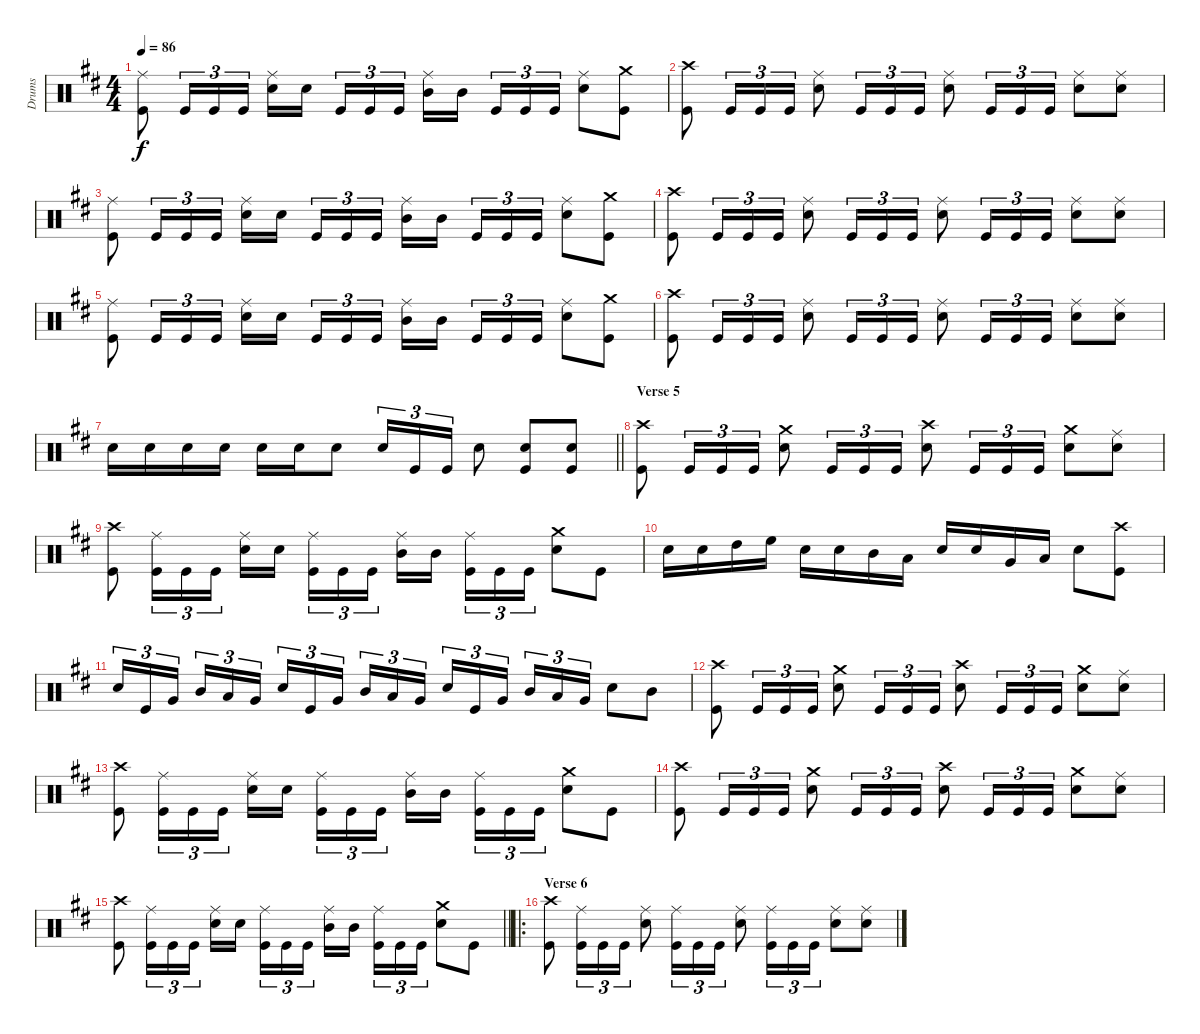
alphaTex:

\track ("Drums" "Drums") {instrument percussion}
\staff {score}
\articulation defaults
\ts (4 4)
\tempo 86
\clef neutral
\ks bminor
("Ride (middle)" "Kick (hit)").8{dy f} "Kick (hit)".16{tu (3 2)} "Kick (hit)".16{tu (3 2)} "Kick (hit)".16{tu (3 2)} ("Ride (middle)" "Snare (hit) 2").16 "Snare (hit) 2".16{beam splitsecondary} "Kick (hit)".16{tu (3 2)} "Kick (hit)".16{tu (3 2)} "Kick (hit)".16{tu (3 2)} ("Ride (middle)" "Mid Tom (hit)").16 "Mid Tom (hit)".16{beam splitsecondary} "Kick (hit)".16{tu (3 2)} "Kick (hit)".16{tu (3 2)} "Kick (hit)".16{tu (3 2)} ("Ride (middle)" "Snare (hit) 2").8 ("Crash medium (hit)" "Kick (hit)").8 |
("Crash high (hit)" "Kick (hit)").8 "Kick (hit)".16{tu (3 2)} "Kick (hit)".16{tu (3 2)} "Kick (hit)".16{tu (3 2)} ("Ride (middle)" "Snare (hit) 2").8 "Kick (hit)".16{tu (3 2)} "Kick (hit)".16{tu (3 2)} "Kick (hit)".16{tu (3 2)} ("Ride (middle)" "Snare (hit) 2").8 "Kick (hit)".16{tu (3 2)} "Kick (hit)".16{tu (3 2)} "Kick (hit)".16{tu (3 2)} ("Ride (middle)" "Snare (hit) 2").8 ("Ride (middle)" "Snare (hit) 2").8 |
("Ride (middle)" "Kick (hit)").8 "Kick (hit)".16{tu (3 2)} "Kick (hit)".16{tu (3 2)} "Kick (hit)".16{tu (3 2)} ("Ride (middle)" "Snare (hit) 2").16 "Snare (hit) 2".16{beam splitsecondary} "Kick (hit)".16{tu (3 2)} "Kick (hit)".16{tu (3 2)} "Kick (hit)".16{tu (3 2)} ("Ride (middle)" "Mid Tom (hit)").16 "Mid Tom (hit)".16{beam splitsecondary} "Kick (hit)".16{tu (3 2)} "Kick (hit)".16{tu (3 2)} "Kick (hit)".16{tu (3 2)} ("Ride (middle)" "Snare (hit) 2").8 ("Crash medium (hit)" "Kick (hit)").8 |
("Crash high (hit)" "Kick (hit)").8 "Kick (hit)".16{tu (3 2)} "Kick (hit)".16{tu (3 2)} "Kick (hit)".16{tu (3 2)} ("Ride (middle)" "Snare (hit) 2").8 "Kick (hit)".16{tu (3 2)} "Kick (hit)".16{tu (3 2)} "Kick (hit)".16{tu (3 2)} ("Ride (middle)" "Snare (hit) 2").8 "Kick (hit)".16{tu (3 2)} "Kick (hit)".16{tu (3 2)} "Kick (hit)".16{tu (3 2)} ("Ride (middle)" "Snare (hit) 2").8 ("Ride (middle)" "Snare (hit) 2").8 |
("Ride (middle)" "Kick (hit)").8 "Kick (hit)".16{tu (3 2)} "Kick (hit)".16{tu (3 2)} "Kick (hit)".16{tu (3 2)} ("Ride (middle)" "Snare (hit) 2").16 "Snare (hit) 2".16{beam splitsecondary} "Kick (hit)".16{tu (3 2)} "Kick (hit)".16{tu (3 2)} "Kick (hit)".16{tu (3 2)} ("Ride (middle)" "Mid Tom (hit)").16 "Mid Tom (hit)".16{beam splitsecondary} "Kick (hit)".16{tu (3 2)} "Kick (hit)".16{tu (3 2)} "Kick (hit)".16{tu (3 2)} ("Ride (middle)" "Snare (hit) 2").8 ("Crash medium (hit)" "Kick (hit)").8 |
("Crash high (hit)" "Kick (hit)").8 "Kick (hit)".16{tu (3 2)} "Kick (hit)".16{tu (3 2)} "Kick (hit)".16{tu (3 2)} ("Ride (middle)" "Snare (hit) 2").8 "Kick (hit)".16{tu (3 2)} "Kick (hit)".16{tu (3 2)} "Kick (hit)".16{tu (3 2)} ("Ride (middle)" "Snare (hit) 2").8 "Kick (hit)".16{tu (3 2)} "Kick (hit)".16{tu (3 2)} "Kick (hit)".16{tu (3 2)} ("Ride (middle)" "Snare (hit) 2").8 ("Ride (middle)" "Snare (hit) 2").8 |
\barLineRight lightlight "Snare (hit) 2".16 "Snare (hit) 2".16 "Snare (hit) 2".16 "Snare (hit) 2".16 "Snare (hit) 2".16 "Snare (hit) 2".16 "Snare (hit) 2".8 "Snare (hit) 2".16{tu (3 2)} "Kick (hit)".16{tu (3 2)} "Kick (hit)".16{tu (3 2)} "Snare (hit) 2".8
("Snare (hit) 2" "Kick (hit)").8 ("Snare (hit) 2" "Kick (hit)").8 |
\section ("" "Verse 5")
("Crash high (hit)" "Kick (hit)").8 "Kick (hit)".16{tu (3 2)} "Kick (hit)".16{tu (3 2)} "Kick (hit)".16{tu (3 2)} ("Crash medium (hit)" "Snare (hit) 2").8 "Kick (hit)".16{tu (3 2)} "Kick (hit)".16{tu (3 2)} "Kick (hit)".16{tu (3 2)} ("Crash high (hit)" "Snare (hit) 2").8 "Kick (hit)".16{tu (3 2)} "Kick (hit)".16{tu (3 2)} "Kick (hit)".16{tu (3 2)} ("Crash medium (hit)" "Snare (hit) 2").8 ("Ride (middle)" "Snare (hit) 2").8 |
("Crash high (hit)" "Kick (hit)").8 ("Ride (middle)" "Kick (hit)").16{tu (3 2)} "Kick (hit)".16{tu (3 2)} "Kick (hit)".16{tu (3 2)} ("Ride (middle)" "Snare (hit) 2").16 "Snare (hit) 2".16{beam splitsecondary} ("Ride (middle)" "Kick (hit)").16{tu (3 2)} "Kick (hit)".16{tu (3 2)} "Kick (hit)".16{tu (3 2)} ("Ride (middle)" "Mid Tom (hit)").16 "Mid Tom (hit)".16{beam splitsecondary} ("Ride (middle)" "Kick (hit)").16{tu (3 2)} "Kick (hit)".16{tu (3 2)} "Kick (hit)".16{tu (3 2)} ("Crash medium (hit)" "Snare (hit) 2").8 "Kick (hit)".8 |
"Snare (hit) 2".16 "Snare (hit) 2".16 "High Tom (hit)".16 "High Floor Tom (hit)".16 "Snare (hit) 2".16 "Snare (hit) 2".16 "Mid Tom (hit)".16 "Low Tom (hit)".16 "Snare (hit) 2".16 "Snare (hit) 2".16 "Very Low Tom (hit)".16 "Low Floor Tom (hit)".16 "Snare (hit) 2".8 ("Crash high (hit)" "Kick (hit)").8 |
"Snare (hit) 2".16{tu (3 2)} "Kick (hit)".16{tu (3 2)} "Very Low Tom (hit)".16{tu (3 2) beam splitsecondary} "Mid Tom (hit)".16{tu (3 2)} "Low Tom (hit)".16{tu (3 2)} "Very Low Tom (hit)".16{tu (3 2)} "Snare (hit) 2".16{tu (3 2)} "Kick (hit)".16{tu (3 2)} "Very Low Tom (hit)".16{tu (3 2) beam splitsecondary} "Mid Tom (hit)".16{tu (3 2)} "Low Tom (hit)".16{tu (3 2)} "Very Low Tom (hit)".16{tu (3 2)} "Snare (hit) 2".16{tu (3 2)} "Kick (hit)".16{tu (3 2)} "Very Low Tom (hit)".16{tu (3 2) beam splitsecondary} "Mid Tom (hit)".16{tu (3 2)} "Low Tom (hit)".16{tu (3 2)} "Very Low Tom (hit)".16{tu (3 2)} "Snare (hit) 2".8 "Mid Tom (hit)".8 |
("Crash high (hit)" "Kick (hit)").8 "Kick (hit)".16{tu (3 2)} "Kick (hit)".16{tu (3 2)} "Kick (hit)".16{tu (3 2)} ("Crash medium (hit)" "Snare (hit) 2").8 "Kick (hit)".16{tu (3 2)} "Kick (hit)".16{tu (3 2)} "Kick (hit)".16{tu (3 2)} ("Crash high (hit)" "Snare (hit) 2").8 "Kick (hit)".16{tu (3 2)} "Kick (hit)".16{tu (3 2)} "Kick (hit)".16{tu (3 2)} ("Crash medium (hit)" "Snare (hit) 2").8 ("Ride (middle)" "Snare (hit) 2").8 |
("Crash high (hit)" "Kick (hit)").8 ("Ride (middle)" "Kick (hit)").16{tu (3 2)} "Kick (hit)".16{tu (3 2)} "Kick (hit)".16{tu (3 2)} ("Ride (middle)" "Snare (hit) 2").16 "Snare (hit) 2".16{beam splitsecondary} ("Ride (middle)" "Kick (hit)").16{tu (3 2)} "Kick (hit)".16{tu (3 2)} "Kick (hit)".16{tu (3 2)} ("Ride (middle)" "Mid Tom (hit)").16 "Mid Tom (hit)".16{beam splitsecondary} ("Ride (middle)" "Kick (hit)").16{tu (3 2)} "Kick (hit)".16{tu (3 2)} "Kick (hit)".16{tu (3 2)} ("Crash medium (hit)" "Snare (hit) 2").8 "Kick (hit)".8 |
("Crash high (hit)" "Kick (hit)").8 "Kick (hit)".16{tu (3 2)} "Kick (hit)".16{tu (3 2)} "Kick (hit)".16{tu (3 2)} ("Crash medium (hit)" "Snare (hit) 2").8 "Kick (hit)".16{tu (3 2)} "Kick (hit)".16{tu (3 2)} "Kick (hit)".16{tu (3 2)} ("Crash high (hit)" "Snare (hit) 2").8 "Kick (hit)".16{tu (3 2)} "Kick (hit)".16{tu (3 2)} "Kick (hit)".16{tu (3 2)} ("Crash medium (hit)" "Snare (hit) 2").8 ("Ride (middle)" "Snare (hit) 2").8 |
\barLineRight lightlight
("Crash high (hit)" "Kick (hit)").8 ("Ride (middle)" "Kick (hit)").16{tu (3 2)} "Kick (hit)".16{tu (3 2)} "Kick (hit)".16{tu (3 2)} ("Ride (middle)" "Snare (hit) 2").16 "Snare (hit) 2".16{beam splitsecondary} ("Ride (middle)" "Kick (hit)").16{tu (3 2)} "Kick (hit)".16{tu (3 2)} "Kick (hit)".16{tu (3 2)} ("Ride (middle)" "Mid Tom (hit)").16 "Mid Tom (hit)".16{beam splitsecondary} ("Ride (middle)" "Kick (hit)").16{tu (3 2)} "Kick (hit)".16{tu (3 2)} "Kick (hit)".16{tu (3 2)} ("Crash medium (hit)" "Snare (hit) 2").8 "Kick (hit)".8 |
\ro
\section ("" "Verse 6")
("Crash high (hit)" "Kick (hit)").8 ("Ride (middle)" "Kick (hit)").16{tu (3 2)} "Kick (hit)".16{tu (3 2)} "Kick (hit)".16{tu (3 2)} ("Ride (middle)" "Snare (hit) 2").8 ("Ride (middle)" "Kick (hit)").16{tu (3 2)} "Kick (hit)".16{tu (3 2)} "Kick (hit)".16{tu (3 2)} ("Ride (middle)" "Snare (hit) 2").8 ("Ride (middle)" "Kick (hit)").16{tu (3 2)} "Kick (hit)".16{tu (3 2)} "Kick (hit)".16{tu (3 2)} ("Ride (middle)" "Snare (hit) 2").8 ("Ride (middle)" "Snare (hit) 2").8
